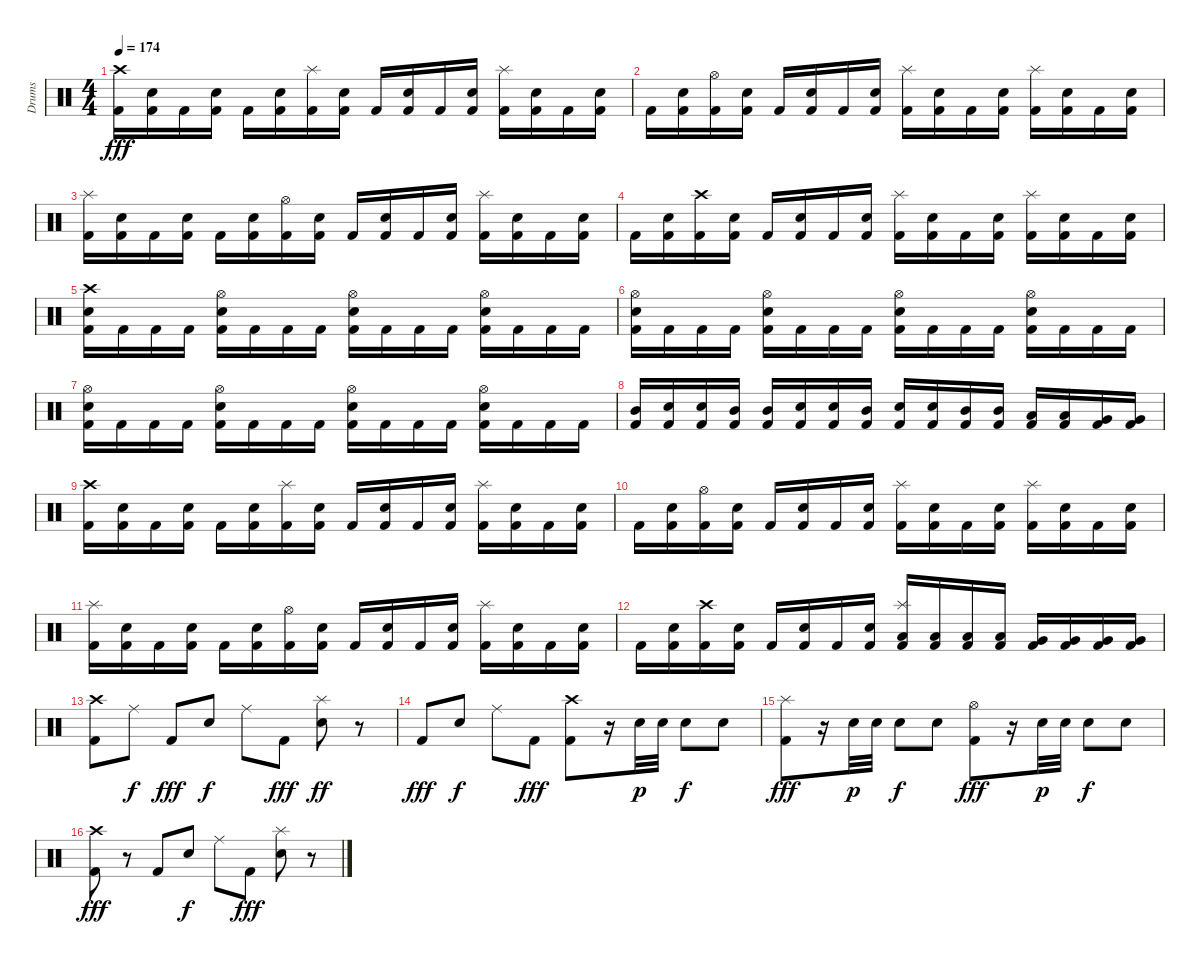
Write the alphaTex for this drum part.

\track ("Drums" "Drums") {instrument percussion}
\staff {score}
\articulation defaults
\ts (4 4)
\tempo 174
\clef neutral
\ks c
("Crash high (hit)" "Kick (hit) 2").16{dy fff} ("Snare (hit) 2" "Kick (hit) 2").16 "Kick (hit) 2".16 ("Snare (hit) 2" "Kick (hit) 2").16 "Kick (hit) 2".16 ("Snare (hit) 2" "Kick (hit) 2").16 ("Splash (hit)" "Kick (hit) 2").16 ("Snare (hit) 2" "Kick (hit) 2").16 "Kick (hit) 2".16 ("Snare (hit) 2" "Kick (hit) 2").16 "Kick (hit) 2".16 ("Snare (hit) 2" "Kick (hit) 2").16 ("Splash (hit)" "Kick (hit) 2").16 ("Snare (hit) 2" "Kick (hit) 2").16 "Kick (hit) 2".16 ("Snare (hit) 2" "Kick (hit) 2").16 |
"Kick (hit) 2".16 ("Snare (hit) 2" "Kick (hit) 2").16 ("Hi-Hat (open)" "Kick (hit) 2").16 ("Snare (hit) 2" "Kick (hit) 2").16 "Kick (hit) 2".16 ("Snare (hit) 2" "Kick (hit) 2").16 "Kick (hit) 2".16 ("Snare (hit) 2" "Kick (hit) 2").16 ("Splash (hit)" "Kick (hit) 2").16 ("Snare (hit) 2" "Kick (hit) 2").16 "Kick (hit) 2".16 ("Snare (hit) 2" "Kick (hit) 2").16 ("Splash (hit)" "Kick (hit) 2").16 ("Snare (hit) 2" "Kick (hit) 2").16 "Kick (hit) 2".16 ("Snare (hit) 2" "Kick (hit) 2").16 |
("Splash (hit)" "Kick (hit) 2").16 ("Snare (hit) 2" "Kick (hit) 2").16 "Kick (hit) 2".16 ("Snare (hit) 2" "Kick (hit) 2").16 "Kick (hit) 2".16 ("Snare (hit) 2" "Kick (hit) 2").16 ("Hi-Hat (open)" "Kick (hit) 2").16 ("Snare (hit) 2" "Kick (hit) 2").16 "Kick (hit) 2".16 ("Snare (hit) 2" "Kick (hit) 2").16 "Kick (hit) 2".16 ("Snare (hit) 2" "Kick (hit) 2").16 ("Splash (hit)" "Kick (hit) 2").16 ("Snare (hit) 2" "Kick (hit) 2").16 "Kick (hit) 2".16 ("Snare (hit) 2" "Kick (hit) 2").16 |
"Kick (hit) 2".16 ("Snare (hit) 2" "Kick (hit) 2").16 ("Crash high (hit)" "Kick (hit) 2").16 ("Snare (hit) 2" "Kick (hit) 2").16 "Kick (hit) 2".16 ("Snare (hit) 2" "Kick (hit) 2").16 "Kick (hit) 2".16 ("Snare (hit) 2" "Kick (hit) 2").16 ("Splash (hit)" "Kick (hit) 2").16 ("Snare (hit) 2" "Kick (hit) 2").16 "Kick (hit) 2".16 ("Snare (hit) 2" "Kick (hit) 2").16 ("Splash (hit)" "Kick (hit) 2").16 ("Snare (hit) 2" "Kick (hit) 2").16 "Kick (hit) 2".16 ("Snare (hit) 2" "Kick (hit) 2").16 |
("Crash high (hit)" "Snare (hit) 2" "Kick (hit) 2").16 "Kick (hit) 2".16 "Kick (hit) 2".16 "Kick (hit) 2".16 ("Hi-Hat (open)" "Snare (hit) 2" "Kick (hit) 2").16 "Kick (hit) 2".16 "Kick (hit) 2".16 "Kick (hit) 2".16 ("Hi-Hat (open)" "Snare (hit) 2" "Kick (hit) 2").16 "Kick (hit) 2".16 "Kick (hit) 2".16 "Kick (hit) 2".16 ("Hi-Hat (open)" "Snare (hit) 2" "Kick (hit) 2").16 "Kick (hit) 2".16 "Kick (hit) 2".16 "Kick (hit) 2".16 |
("Hi-Hat (open)" "Snare (hit) 2" "Kick (hit) 2").16 "Kick (hit) 2".16 "Kick (hit) 2".16 "Kick (hit) 2".16 ("Hi-Hat (open)" "Snare (hit) 2" "Kick (hit) 2").16 "Kick (hit) 2".16 "Kick (hit) 2".16 "Kick (hit) 2".16 ("Hi-Hat (open)" "Snare (hit) 2" "Kick (hit) 2").16 "Kick (hit) 2".16 "Kick (hit) 2".16 "Kick (hit) 2".16 ("Hi-Hat (open)" "Snare (hit) 2" "Kick (hit) 2").16 "Kick (hit) 2".16 "Kick (hit) 2".16 "Kick (hit) 2".16 |
("Hi-Hat (open)" "Snare (hit) 2" "Kick (hit) 2").16 "Kick (hit) 2".16 "Kick (hit) 2".16 "Kick (hit) 2".16 ("Hi-Hat (open)" "Snare (hit) 2" "Kick (hit) 2").16 "Kick (hit) 2".16 "Kick (hit) 2".16 "Kick (hit) 2".16 ("Hi-Hat (open)" "Snare (hit) 2" "Kick (hit) 2").16 "Kick (hit) 2".16 "Kick (hit) 2".16 "Kick (hit) 2".16 ("Hi-Hat (open)" "Snare (hit) 2" "Kick (hit) 2").16 "Kick (hit) 2".16 "Kick (hit) 2".16 "Kick (hit) 2".16 |
("Mid Tom (hit)" "Kick (hit) 2").16 ("Snare (hit) 2" "Kick (hit) 2").16 ("Snare (hit) 2" "Kick (hit) 2").16 ("Mid Tom (hit)" "Kick (hit) 2").16 ("Mid Tom (hit)" "Kick (hit) 2").16 ("Snare (hit) 2" "Kick (hit) 2").16 ("Snare (hit) 2" "Kick (hit) 2").16 ("Mid Tom (hit)" "Kick (hit) 2").16 ("Snare (hit) 2" "Kick (hit) 2").16 ("Snare (hit) 2" "Kick (hit) 2").16 ("Mid Tom (hit)" "Kick (hit) 2").16 ("Mid Tom (hit)" "Kick (hit) 2").16 ("Low Tom (hit)" "Kick (hit) 2").16 ("Low Tom (hit)" "Kick (hit) 2").16 ("Very Low Tom (hit)" "Kick (hit) 2").16 ("Very Low Tom (hit)" "Kick (hit) 2").16 |
("Crash high (hit)" "Kick (hit) 2").16 ("Snare (hit) 2" "Kick (hit) 2").16 "Kick (hit) 2".16 ("Snare (hit) 2" "Kick (hit) 2").16 "Kick (hit) 2".16 ("Snare (hit) 2" "Kick (hit) 2").16 ("Splash (hit)" "Kick (hit) 2").16 ("Snare (hit) 2" "Kick (hit) 2").16 "Kick (hit) 2".16 ("Snare (hit) 2" "Kick (hit) 2").16 "Kick (hit) 2".16 ("Snare (hit) 2" "Kick (hit) 2").16 ("Splash (hit)" "Kick (hit) 2").16 ("Snare (hit) 2" "Kick (hit) 2").16 "Kick (hit) 2".16 ("Snare (hit) 2" "Kick (hit) 2").16 |
"Kick (hit) 2".16 ("Snare (hit) 2" "Kick (hit) 2").16 ("Hi-Hat (open)" "Kick (hit) 2").16 ("Snare (hit) 2" "Kick (hit) 2").16 "Kick (hit) 2".16 ("Snare (hit) 2" "Kick (hit) 2").16 "Kick (hit) 2".16 ("Snare (hit) 2" "Kick (hit) 2").16 ("Splash (hit)" "Kick (hit) 2").16 ("Snare (hit) 2" "Kick (hit) 2").16 "Kick (hit) 2".16 ("Snare (hit) 2" "Kick (hit) 2").16 ("Splash (hit)" "Kick (hit) 2").16 ("Snare (hit) 2" "Kick (hit) 2").16 "Kick (hit) 2".16 ("Snare (hit) 2" "Kick (hit) 2").16 |
("Splash (hit)" "Kick (hit) 2").16 ("Snare (hit) 2" "Kick (hit) 2").16 "Kick (hit) 2".16 ("Snare (hit) 2" "Kick (hit) 2").16 "Kick (hit) 2".16 ("Snare (hit) 2" "Kick (hit) 2").16 ("Hi-Hat (open)" "Kick (hit) 2").16 ("Snare (hit) 2" "Kick (hit) 2").16 "Kick (hit) 2".16 ("Snare (hit) 2" "Kick (hit) 2").16 "Kick (hit) 2".16 ("Snare (hit) 2" "Kick (hit) 2").16 ("Splash (hit)" "Kick (hit) 2").16 ("Snare (hit) 2" "Kick (hit) 2").16 "Kick (hit) 2".16 ("Snare (hit) 2" "Kick (hit) 2").16 |
"Kick (hit) 2".16 ("Snare (hit) 2" "Kick (hit) 2").16 ("Crash high (hit)" "Kick (hit) 2").16 ("Snare (hit) 2" "Kick (hit) 2").16 "Kick (hit) 2".16 ("Snare (hit) 2" "Kick (hit) 2").16 "Kick (hit) 2".16 ("Snare (hit) 2" "Kick (hit) 2").16 ("Splash (hit)" "Low Tom (hit)" "Kick (hit) 2").16 ("Low Tom (hit)" "Kick (hit) 2").16 ("Low Tom (hit)" "Kick (hit) 2").16 ("Low Tom (hit)" "Kick (hit) 2").16 ("Very Low Tom (hit)" "Kick (hit) 2").16 ("Very Low Tom (hit)" "Kick (hit) 2").16 ("Very Low Tom (hit)" "Kick (hit) 2").16 ("Very Low Tom (hit)" "Kick (hit) 2").16 |
("Crash high (hit)" "Kick (hit) 2").8 "Ride (middle)".8{dy f} "Kick (hit) 2".8{dy fff} "Snare (hit) 2".8{dy f} "Ride (middle)".8 "Kick (hit) 2".8{dy fff} ("Splash (hit)" "Snare (hit) 2").8{dy ff} r.8 |
"Kick (hit) 2".8{dy fff} "Snare (hit) 2".8{dy f} "Ride (middle)".8 "Kick (hit) 2".8{dy fff} ("Crash high (hit)" "Kick (hit) 2").8 r.16 "Snare (hit) 2".32{dy p} "Snare (hit) 2".32 "Snare (hit) 2".8{dy f} "Snare (hit) 2".8 |
("Splash (hit)" "Kick (hit) 2").8{dy fff} r.16 "Snare (hit) 2".32{dy p} "Snare (hit) 2".32 "Snare (hit) 2".8{dy f} "Snare (hit) 2".8 ("Hi-Hat (open)" "Kick (hit) 2").8{dy fff} r.16 "Snare (hit) 2".32{dy p} "Snare (hit) 2".32 "Snare (hit) 2".8{dy f} "Snare (hit) 2".8 |
("Crash high (hit)" "Kick (hit) 2").8{dy fff} r.8 "Kick (hit) 2".8 "Snare (hit) 2".8{dy f} "Ride (middle)".8 "Kick (hit) 2".8{dy fff} ("Splash (hit)" "Snare (hit) 2").8 r.8
